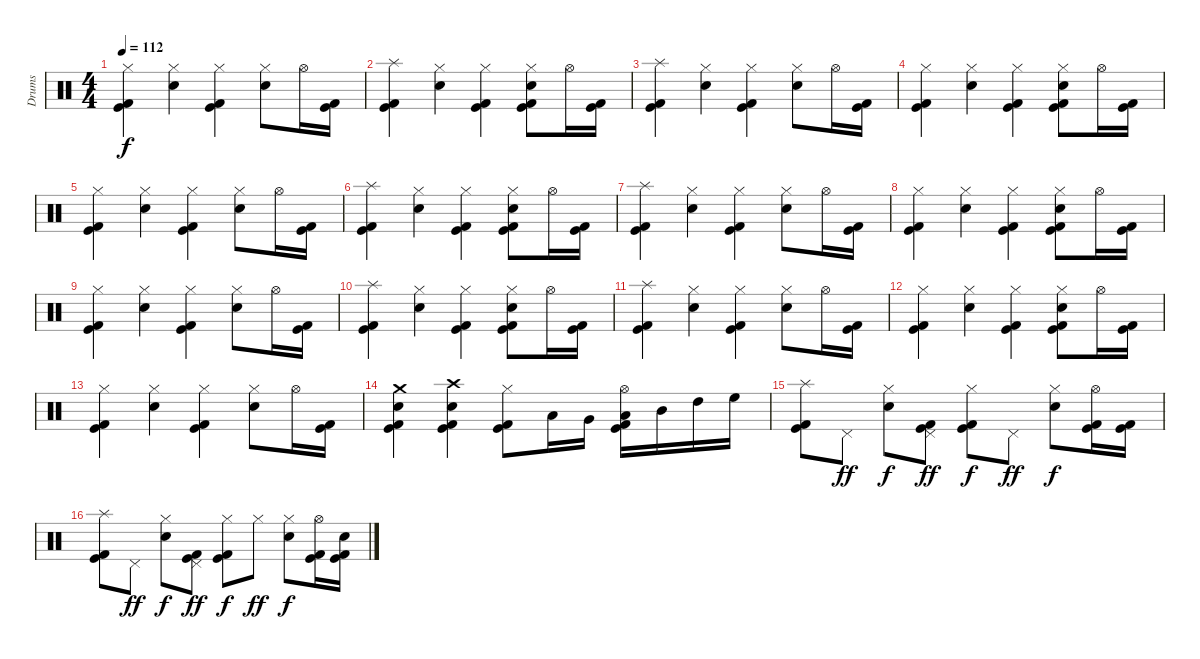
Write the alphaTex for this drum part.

\track ("Drums" "Drums") {instrument percussion}
\staff {score}
\articulation defaults
\ts (4 4)
\tempo 112
\clef neutral
\ks c
("Hi-Hat (closed)" "Kick (hit) 2" "Kick (hit)").4{dy f} ("Hi-Hat (closed)" "Electric Snare (hit)").4 ("Hi-Hat (closed)" "Kick (hit) 2" "Kick (hit)").4 ("Hi-Hat (closed)" "Electric Snare (hit)").8 "Hi-Hat (open)".16 ("Kick (hit) 2" "Kick (hit)").16 |
("Splash (hit)" "Kick (hit) 2" "Kick (hit)").4 ("Hi-Hat (closed)" "Electric Snare (hit)").4 ("Hi-Hat (closed)" "Kick (hit) 2" "Kick (hit)").4 ("Hi-Hat (closed)" "Electric Snare (hit)" "Kick (hit) 2" "Kick (hit)").8 "Hi-Hat (open)".16 ("Kick (hit) 2" "Kick (hit)").16 |
("Splash (hit)" "Kick (hit) 2" "Kick (hit)").4 ("Hi-Hat (closed)" "Electric Snare (hit)").4 ("Hi-Hat (closed)" "Kick (hit) 2" "Kick (hit)").4 ("Hi-Hat (closed)" "Electric Snare (hit)").8 "Hi-Hat (open)".16 ("Kick (hit) 2" "Kick (hit)").16 |
("Hi-Hat (closed)" "Kick (hit) 2" "Kick (hit)").4 ("Hi-Hat (closed)" "Electric Snare (hit)").4 ("Hi-Hat (closed)" "Kick (hit) 2" "Kick (hit)").4 ("Hi-Hat (closed)" "Electric Snare (hit)" "Kick (hit) 2" "Kick (hit)").8 "Hi-Hat (open)".16 ("Kick (hit) 2" "Kick (hit)").16 |
("Hi-Hat (closed)" "Kick (hit) 2" "Kick (hit)").4 ("Hi-Hat (closed)" "Electric Snare (hit)").4 ("Hi-Hat (closed)" "Kick (hit) 2" "Kick (hit)").4 ("Hi-Hat (closed)" "Electric Snare (hit)").8 "Hi-Hat (open)".16 ("Kick (hit) 2" "Kick (hit)").16 |
("Splash (hit)" "Kick (hit) 2" "Kick (hit)").4 ("Hi-Hat (closed)" "Electric Snare (hit)").4 ("Hi-Hat (closed)" "Kick (hit) 2" "Kick (hit)").4 ("Hi-Hat (closed)" "Electric Snare (hit)" "Kick (hit) 2" "Kick (hit)").8 "Hi-Hat (open)".16 ("Kick (hit) 2" "Kick (hit)").16 |
("Splash (hit)" "Kick (hit) 2" "Kick (hit)").4 ("Hi-Hat (closed)" "Electric Snare (hit)").4 ("Hi-Hat (closed)" "Kick (hit) 2" "Kick (hit)").4 ("Hi-Hat (closed)" "Electric Snare (hit)").8 "Hi-Hat (open)".16 ("Kick (hit) 2" "Kick (hit)").16 |
("Hi-Hat (closed)" "Kick (hit) 2" "Kick (hit)").4 ("Hi-Hat (closed)" "Electric Snare (hit)").4 ("Hi-Hat (closed)" "Kick (hit) 2" "Kick (hit)").4 ("Hi-Hat (closed)" "Electric Snare (hit)" "Kick (hit) 2" "Kick (hit)").8 "Hi-Hat (open)".16 ("Kick (hit) 2" "Kick (hit)").16 |
("Hi-Hat (closed)" "Kick (hit) 2" "Kick (hit)").4 ("Hi-Hat (closed)" "Electric Snare (hit)").4 ("Hi-Hat (closed)" "Kick (hit) 2" "Kick (hit)").4 ("Hi-Hat (closed)" "Electric Snare (hit)").8 "Hi-Hat (open)".16 ("Kick (hit) 2" "Kick (hit)").16 |
("Splash (hit)" "Kick (hit) 2" "Kick (hit)").4 ("Hi-Hat (closed)" "Electric Snare (hit)").4 ("Hi-Hat (closed)" "Kick (hit) 2" "Kick (hit)").4 ("Hi-Hat (closed)" "Electric Snare (hit)" "Kick (hit) 2" "Kick (hit)").8 "Hi-Hat (open)".16 ("Kick (hit) 2" "Kick (hit)").16 |
("Splash (hit)" "Kick (hit) 2" "Kick (hit)").4 ("Hi-Hat (closed)" "Electric Snare (hit)").4 ("Hi-Hat (closed)" "Kick (hit) 2" "Kick (hit)").4 ("Hi-Hat (closed)" "Electric Snare (hit)").8 "Hi-Hat (open)".16 ("Kick (hit) 2" "Kick (hit)").16 |
("Hi-Hat (closed)" "Kick (hit) 2" "Kick (hit)").4 ("Hi-Hat (closed)" "Electric Snare (hit)").4 ("Hi-Hat (closed)" "Kick (hit) 2" "Kick (hit)").4 ("Hi-Hat (closed)" "Electric Snare (hit)" "Kick (hit) 2" "Kick (hit)").8 "Hi-Hat (open)".16 ("Kick (hit) 2" "Kick (hit)").16 |
("Hi-Hat (closed)" "Kick (hit) 2" "Kick (hit)").4 ("Hi-Hat (closed)" "Electric Snare (hit)").4 ("Hi-Hat (closed)" "Kick (hit) 2" "Kick (hit)").4 ("Hi-Hat (closed)" "Electric Snare (hit)").8 "Hi-Hat (open)".16 ("Kick (hit) 2" "Kick (hit)").16 |
("Crash medium (hit)" "Electric Snare (hit)" "Kick (hit) 2" "Kick (hit)").4 ("Crash high (hit)" "Electric Snare (hit)" "Kick (hit) 2" "Kick (hit)").4 ("Hi-Hat (closed)" "Kick (hit) 2" "Kick (hit)").8 "Low Tom (hit)".16 "Very Low Tom (hit)".16 ("Hi-Hat (open)" "Low Floor Tom (hit)" "Kick (hit) 2" "Kick (hit)").16 "Mid Tom (hit)".16 "High Tom (hit)".16 "High Floor Tom (hit)".16 |
("Splash (hit)" "Kick (hit) 2" "Kick (hit)").8 "Pedal Hi-Hat (hit)".8{dy ff} ("Hi-Hat (closed)" "Electric Snare (hit)").8{dy f} ("Pedal Hi-Hat (hit)" "Kick (hit)" "Kick (hit) 2").8{dy ff} ("Hi-Hat (closed)" "Kick (hit)" "Kick (hit) 2").8{dy f} "Pedal Hi-Hat (hit)".8{dy ff} ("Hi-Hat (closed)" "Electric Snare (hit)").8{dy f} ("Hi-Hat (open)" "Kick (hit) 2" "Kick (hit)").16 ("Kick (hit) 2" "Kick (hit)").16 |
("Splash (hit)" "Kick (hit) 2" "Kick (hit)").8 "Pedal Hi-Hat (hit)".8{dy ff} ("Hi-Hat (closed)" "Electric Snare (hit)").8{dy f} ("Pedal Hi-Hat (hit)" "Kick (hit)" "Kick (hit) 2").8{dy ff} ("Hi-Hat (closed)" "Kick (hit)" "Kick (hit) 2").8{dy f} "Hi-Hat (closed)".8{dy ff} ("Hi-Hat (closed)" "Electric Snare (hit)").8{dy f} ("Hi-Hat (open)" "Kick (hit) 2" "Kick (hit)").16 ("Electric Snare (hit)" "Kick (hit) 2" "Kick (hit)").16
